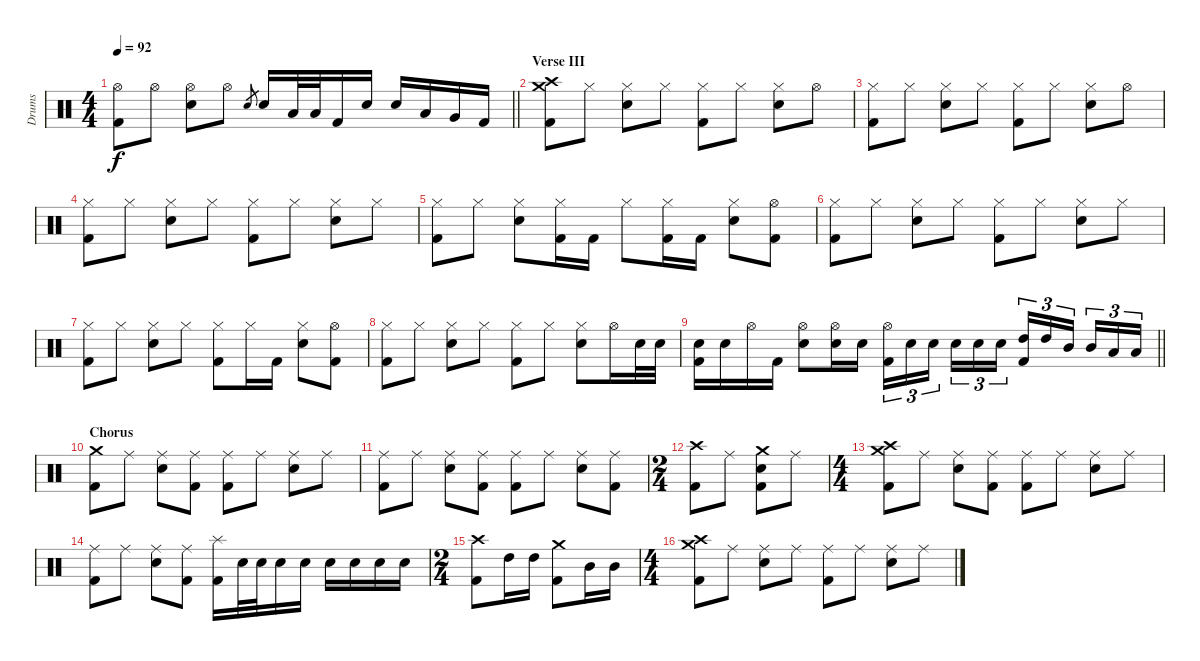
\track ("Drums" "Drums") {instrument percussion}
\staff {score}
\articulation defaults
\ts (4 4)
\tempo 92
\clef neutral
\barLineRight lightlight
\ks c
("Hi-Hat (open)" "Kick (hit) 2").8{dy f} "Hi-Hat (open)".8 ("Hi-Hat (open)" "Electric Snare (hit)").8 "Hi-Hat (open)".8 "Electric Snare (hit)".8{gr} "Electric Snare (hit)".16 "Low Floor Tom (hit)".32 "Low Tom (hit)".32 "Kick (hit) 2".16 "Electric Snare (hit)".16 "Electric Snare (hit)".16 "Low Tom (hit)".16 "Very Low Tom (hit)".16 "Kick (hit) 2".16 |
\section ("" "Verse III")
("Crash medium (hit)" "Crash high (hit)" "Kick (hit) 2").8 "Hi-Hat (closed)".8 ("Hi-Hat (closed)" "Electric Snare (hit)").8 "Hi-Hat (closed)".8 ("Hi-Hat (closed)" "Kick (hit) 2").8 "Hi-Hat (closed)".8 ("Hi-Hat (closed)" "Electric Snare (hit)").8 "Hi-Hat (open)".8 |
("Hi-Hat (closed)" "Kick (hit) 2").8 "Hi-Hat (closed)".8 ("Hi-Hat (closed)" "Electric Snare (hit)").8 "Hi-Hat (closed)".8 ("Hi-Hat (closed)" "Kick (hit) 2").8 "Hi-Hat (closed)".8 ("Hi-Hat (closed)" "Electric Snare (hit)").8 "Hi-Hat (open)".8 |
("Hi-Hat (closed)" "Kick (hit) 2").8 "Hi-Hat (closed)".8 ("Hi-Hat (closed)" "Electric Snare (hit)").8 "Hi-Hat (closed)".8 ("Hi-Hat (closed)" "Kick (hit) 2").8 "Hi-Hat (closed)".8 ("Hi-Hat (closed)" "Electric Snare (hit)").8 "Hi-Hat (closed)".8 |
("Hi-Hat (closed)" "Kick (hit) 2").8 "Hi-Hat (closed)".8 ("Hi-Hat (closed)" "Electric Snare (hit)").8 ("Hi-Hat (closed)" "Kick (hit) 2").16 "Kick (hit) 2".16 "Hi-Hat (closed)".8 ("Hi-Hat (closed)" "Kick (hit) 2").16 "Kick (hit) 2".16 ("Hi-Hat (closed)" "Electric Snare (hit)").8 ("Hi-Hat (open)" "Kick (hit) 2").8 |
("Hi-Hat (closed)" "Kick (hit) 2").8 "Hi-Hat (closed)".8 ("Hi-Hat (closed)" "Electric Snare (hit)").8 "Hi-Hat (closed)".8 ("Hi-Hat (closed)" "Kick (hit) 2").8 "Hi-Hat (closed)".8 ("Hi-Hat (closed)" "Electric Snare (hit)").8 "Hi-Hat (closed)".8 |
("Hi-Hat (closed)" "Kick (hit) 2").8 "Hi-Hat (closed)".8 ("Hi-Hat (closed)" "Electric Snare (hit)").8 "Hi-Hat (closed)".8 ("Hi-Hat (closed)" "Kick (hit) 2").8 "Hi-Hat (closed)".16 "Kick (hit) 2".16 ("Hi-Hat (closed)" "Electric Snare (hit)").8 ("Hi-Hat (open)" "Kick (hit) 2").8 |
("Hi-Hat (closed)" "Kick (hit) 2").8 "Hi-Hat (closed)".8 ("Hi-Hat (closed)" "Electric Snare (hit)").8 "Hi-Hat (closed)".8 ("Hi-Hat (closed)" "Kick (hit) 2").8 "Hi-Hat (closed)".8 ("Hi-Hat (closed)" "Electric Snare (hit)").8 "Hi-Hat (open)".16 "Electric Snare (hit)".32 "Electric Snare (hit)".32 |
\barLineRight lightlight
("Electric Snare (hit)" "Kick (hit) 2").16 "Electric Snare (hit)".16 "Hi-Hat (open)".16 "Kick (hit) 2".16 ("Hi-Hat (open)" "Electric Snare (hit)").8 ("Hi-Hat (open)" "Electric Snare (hit)").16 "Electric Snare (hit)".16 ("Hi-Hat (open)" "Kick (hit) 2").16{tu (3 2)} "Electric Snare (hit)".16{tu (3 2)} "Electric Snare (hit)".16{tu (3 2) beam splitsecondary} "Electric Snare (hit)".16{tu (3 2)} "Electric Snare (hit)".16{tu (3 2)} "Electric Snare (hit)".16{tu (3 2)} ("High Tom (hit)" "Kick (hit) 2").16{tu (3 2)} "High Tom (hit)".16{tu (3 2)} "Mid Tom (hit)".16{tu (3 2) beam splitsecondary} "Mid Tom (hit)".16{tu (3 2)} "Low Tom (hit)".16{tu (3 2)} "Low Tom (hit)".16{tu (3 2)} |
\section ("" "Chorus")
("Crash medium (hit)" "Kick (hit) 2").8 "Ride (middle)".8 ("Ride (middle)" "Electric Snare (hit)").8 ("Ride (middle)" "Kick (hit) 2").8 ("Ride (middle)" "Kick (hit) 2").8 "Ride (middle)".8 ("Ride (middle)" "Electric Snare (hit)").8 "Ride (middle)".8 |
("Ride (middle)" "Kick (hit) 2").8 "Ride (middle)".8 ("Ride (middle)" "Electric Snare (hit)").8 ("Ride (middle)" "Kick (hit) 2").8 ("Ride (middle)" "Kick (hit) 2").8 "Ride (middle)".8 ("Ride (middle)" "Electric Snare (hit)").8 ("Ride (middle)" "Kick (hit) 2").8 |
\ts (2 4)
("Crash high (hit)" "Kick (hit) 2").8 "Ride (middle)".8 ("Crash medium (hit)" "Electric Snare (hit)" "Kick (hit) 2").8 "Ride (middle)".8 |
\ts (4 4)
("Crash medium (hit)" "Crash high (hit)" "Kick (hit) 2").8 "Ride (middle)".8 ("Ride (middle)" "Electric Snare (hit)").8 ("Ride (middle)" "Kick (hit) 2").8 ("Ride (middle)" "Kick (hit) 2").8 "Ride (middle)".8 ("Ride (middle)" "Electric Snare (hit)").8 "Ride (middle)".8 |
("Ride (middle)" "Kick (hit) 2").8 "Ride (middle)".8 ("Ride (middle)" "Electric Snare (hit)").8 ("Ride (middle)" "Kick (hit) 2").8 ("Splash (hit)" "Kick (hit) 2").16 "Electric Snare (hit)".32 "Electric Snare (hit)".32 "Electric Snare (hit)".16 "Electric Snare (hit)".16 "Electric Snare (hit)".16 "Electric Snare (hit)".16 "Electric Snare (hit)".16 "Electric Snare (hit)".16 |
\ts (2 4)
("Crash high (hit)" "Kick (hit) 2").8 "High Tom (hit)".16 "High Tom (hit)".16 ("Crash medium (hit)" "Kick (hit) 2").8 "Mid Tom (hit)".16 "Mid Tom (hit)".16 |
\ts (4 4)
("Crash medium (hit)" "Crash high (hit)" "Kick (hit) 2").8 "Ride (middle)".8 ("Ride (middle)" "Electric Snare (hit)").8 "Ride (middle)".8 ("Ride (middle)" "Kick (hit) 2").8 "Ride (middle)".8 ("Ride (middle)" "Electric Snare (hit)").8 "Ride (middle)".8
